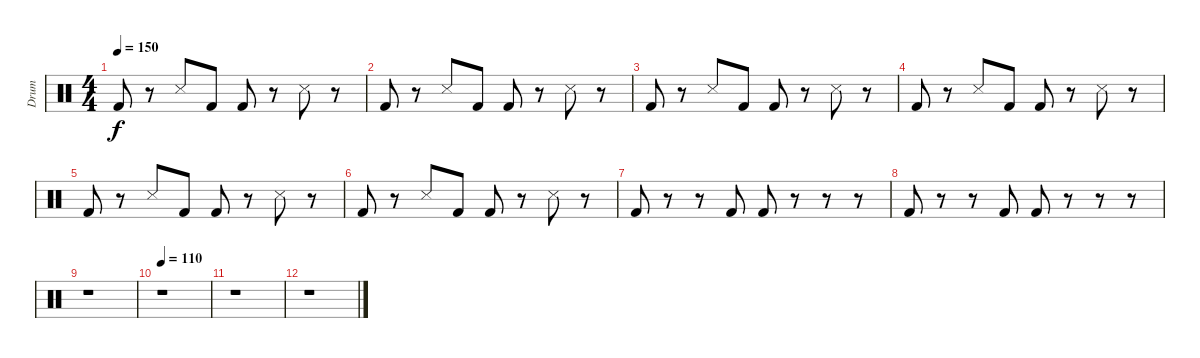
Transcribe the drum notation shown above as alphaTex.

\track ("Drum" "Drum") {instrument percussion}
\staff {score}
\articulation defaults
\ts (4 4)
\tempo 150
\clef neutral
\ks c "Kick (hit) 2".8{dy f}
r.8 "Snare (side stick) 3".8 "Kick (hit) 2".8 "Kick (hit) 2".8 r.8 "Snare (side stick) 3".8 r.8 |
"Kick (hit) 2".8 r.8 "Snare (side stick) 3".8 "Kick (hit) 2".8 "Kick (hit) 2".8 r.8 "Snare (side stick) 3".8 r.8 |
"Kick (hit) 2".8 r.8 "Snare (side stick) 3".8 "Kick (hit) 2".8 "Kick (hit) 2".8 r.8 "Snare (side stick) 3".8 r.8 |
"Kick (hit) 2".8 r.8 "Snare (side stick) 3".8 "Kick (hit) 2".8 "Kick (hit) 2".8 r.8 "Snare (side stick) 3".8 r.8 |
"Kick (hit) 2".8 r.8 "Snare (side stick) 3".8 "Kick (hit) 2".8 "Kick (hit) 2".8 r.8 "Snare (side stick) 3".8 r.8 |
"Kick (hit) 2".8 r.8 "Snare (side stick) 3".8 "Kick (hit) 2".8 "Kick (hit) 2".8 r.8 "Snare (side stick) 3".8 r.8 |
"Kick (hit) 2".8 r.8 r.8 "Kick (hit) 2".8 "Kick (hit) 2".8 r.8 r.8 r.8 |
"Kick (hit) 2".8 r.8 r.8 "Kick (hit) 2".8 "Kick (hit) 2".8 r.8 r.8 r.8 |
r.1 |
\tempo 110
r.1 |
r.1 |
r.1
